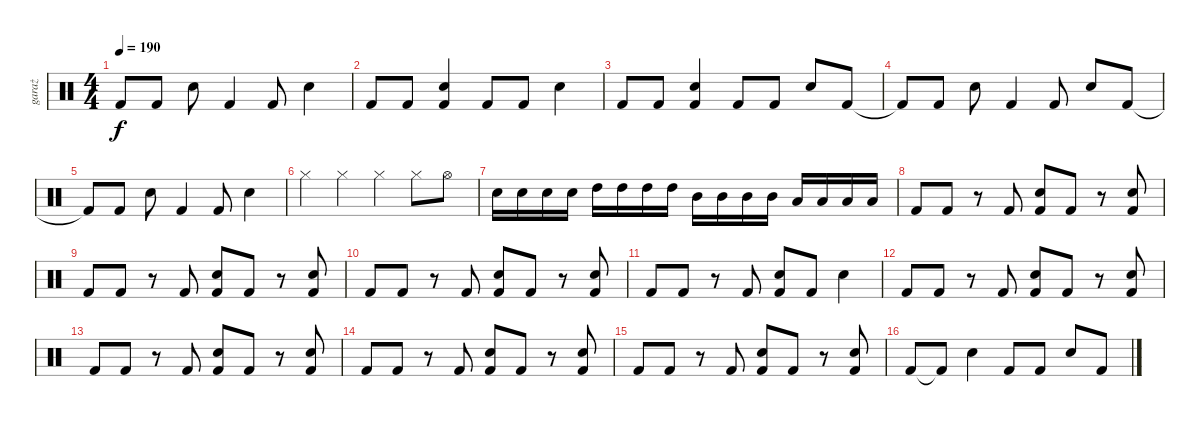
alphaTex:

\track ("garaż" "garaż") {instrument percussion}
\staff {score}
\articulation defaults
\ts (4 4)
\tempo 190
\clef neutral
\ks c "Kick (hit) 2"{t}.8{dy f} "Kick (hit) 2".8 "Snare (hit) 2".8 "Kick (hit) 2".4 "Kick (hit) 2".8 "Snare (hit) 2".4
|
"Kick (hit) 2".8 "Kick (hit) 2".8 ("Snare (hit) 2" "Kick (hit) 2").4 "Kick (hit) 2".8 "Kick (hit) 2".8 "Snare (hit) 2".4 |
"Kick (hit) 2".8 "Kick (hit) 2".8 ("Snare (hit) 2" "Kick (hit) 2").4 "Kick (hit) 2".8 "Kick (hit) 2".8 "Snare (hit) 2".8 "Kick (hit) 2".8 |
"Kick (hit) 2"{t}.8 "Kick (hit) 2".8 "Snare (hit) 2".8 "Kick (hit) 2".4 "Kick (hit) 2".8 "Snare (hit) 2".8 "Kick (hit) 2".8 |
"Kick (hit) 2"{t}.8 "Kick (hit) 2".8 "Snare (hit) 2".8 "Kick (hit) 2".4 "Kick (hit) 2".8 "Snare (hit) 2".4 |
"Hi-Hat (closed)".4 "Hi-Hat (closed)".4 "Hi-Hat (closed)".4 "Hi-Hat (closed)".8 "Hi-Hat (open)".8 |
"Snare (hit) 2".16 "Snare (hit) 2".16 "Snare (hit) 2".16 "Snare (hit) 2".16 "High Tom (hit)".16 "High Tom (hit)".16 "High Tom (hit)".16 "High Tom (hit)".16 "Mid Tom (hit)".16 "Mid Tom (hit)".16 "Mid Tom (hit)".16 "Mid Tom (hit)".16 "Low Tom (hit)".16 "Low Tom (hit)".16 "Low Tom (hit)".16 "Low Tom (hit)".16 |
"Kick (hit) 2".8 "Kick (hit) 2".8 r.8 "Kick (hit) 2".8 ("Snare (hit) 2" "Kick (hit) 2").8 "Kick (hit) 2".8 r.8 ("Snare (hit) 2" "Kick (hit) 2").8 |
"Kick (hit) 2".8 "Kick (hit) 2".8 r.8 "Kick (hit) 2".8 ("Snare (hit) 2" "Kick (hit) 2").8 "Kick (hit) 2".8 r.8 ("Snare (hit) 2" "Kick (hit) 2").8 |
"Kick (hit) 2".8 "Kick (hit) 2".8 r.8 "Kick (hit) 2".8 ("Snare (hit) 2" "Kick (hit) 2").8 "Kick (hit) 2".8 r.8 ("Snare (hit) 2" "Kick (hit) 2").8 |
"Kick (hit) 2".8 "Kick (hit) 2".8 r.8 "Kick (hit) 2".8 ("Snare (hit) 2" "Kick (hit) 2").8 "Kick (hit) 2".8 "Snare (hit) 2".4 |
"Kick (hit) 2".8 "Kick (hit) 2".8 r.8 "Kick (hit) 2".8 ("Snare (hit) 2" "Kick (hit) 2").8 "Kick (hit) 2".8 r.8 ("Snare (hit) 2" "Kick (hit) 2").8 |
"Kick (hit) 2".8 "Kick (hit) 2".8 r.8 "Kick (hit) 2".8 ("Snare (hit) 2" "Kick (hit) 2").8 "Kick (hit) 2".8 r.8 ("Snare (hit) 2" "Kick (hit) 2").8 |
"Kick (hit) 2".8 "Kick (hit) 2".8 r.8 "Kick (hit) 2".8 ("Snare (hit) 2" "Kick (hit) 2").8 "Kick (hit) 2".8 r.8 ("Snare (hit) 2" "Kick (hit) 2").8 |
"Kick (hit) 2".8 "Kick (hit) 2".8 r.8 "Kick (hit) 2".8 ("Snare (hit) 2" "Kick (hit) 2").8 "Kick (hit) 2".8 r.8 ("Snare (hit) 2" "Kick (hit) 2").8 |
"Kick (hit) 2".8 "Kick (hit) 2"{t}.8 "Snare (hit) 2".4 "Kick (hit) 2".8 "Kick (hit) 2".8 "Snare (hit) 2".8 "Kick (hit) 2".8
